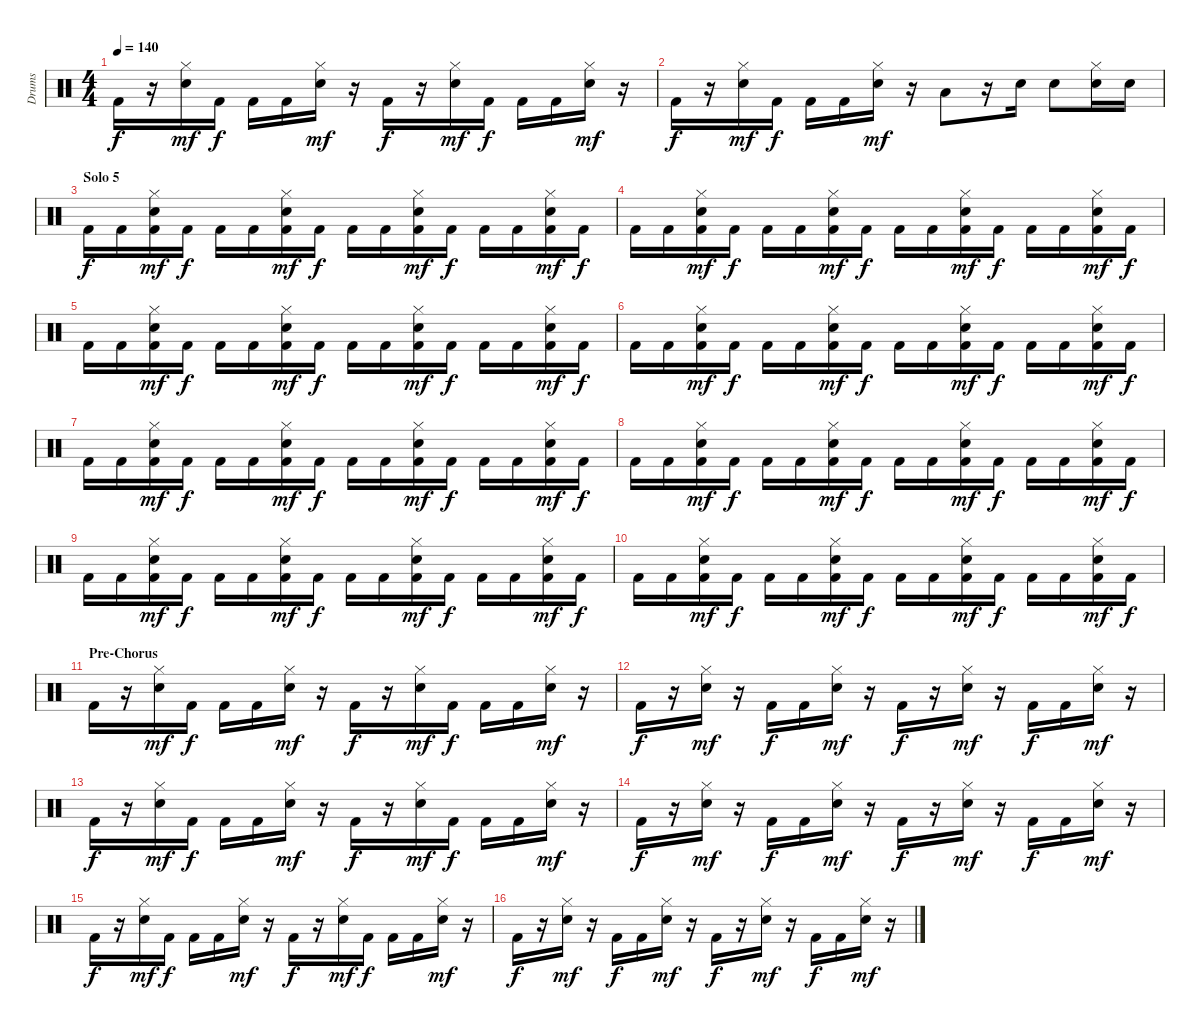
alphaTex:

\track ("Drums" "Drums") {instrument percussion}
\staff {score}
\articulation defaults
\ts (4 4)
\tempo 140
\clef neutral
\ks c "Kick (hit) 2".16{dy f}
r.16 ("Snare (hit) 2" "Hi-Hat (closed)").16{dy mf} "Kick (hit) 2".16{dy f} "Kick (hit) 2".16 "Kick (hit) 2".16 ("Snare (hit) 2" "Hi-Hat (closed)").16{dy mf} r.16 "Kick (hit) 2".16{dy f} r.16 ("Snare (hit) 2" "Hi-Hat (closed)").16{dy mf} "Kick (hit) 2".16{dy f} "Kick (hit) 2".16 "Kick (hit) 2".16 ("Snare (hit) 2" "Hi-Hat (closed)").16{dy mf} r.16 |
"Kick (hit) 2".16{dy f} r.16 ("Snare (hit) 2" "Hi-Hat (closed)").16{dy mf} "Kick (hit) 2".16{dy f} "Kick (hit) 2".16 "Kick (hit) 2".16 ("Snare (hit) 2" "Hi-Hat (closed)").16{dy mf} r.16 "Low Floor Tom (hit)".8 r.16 "Snare (hit) 2".16 "Snare (hit) 2".8 ("Snare (hit) 2" "Hi-Hat (closed)").16 "Snare (hit) 2".16 |
\section ("" "Solo 5")
"Kick (hit) 2".16{dy f} "Kick (hit) 2".16 ("Kick (hit) 2" "Snare (hit) 2" "Hi-Hat (closed)").16{dy mf} "Kick (hit) 2".16{dy f} "Kick (hit) 2".16 "Kick (hit) 2".16 ("Kick (hit) 2" "Snare (hit) 2" "Hi-Hat (closed)").16{dy mf} "Kick (hit) 2".16{dy f} "Kick (hit) 2".16 "Kick (hit) 2".16 ("Kick (hit) 2" "Snare (hit) 2" "Hi-Hat (closed)").16{dy mf} "Kick (hit) 2".16{dy f} "Kick (hit) 2".16 "Kick (hit) 2".16 ("Kick (hit) 2" "Snare (hit) 2" "Hi-Hat (closed)").16{dy mf} "Kick (hit) 2".16{dy f} |
"Kick (hit) 2".16 "Kick (hit) 2".16 ("Kick (hit) 2" "Snare (hit) 2" "Hi-Hat (closed)").16{dy mf} "Kick (hit) 2".16{dy f} "Kick (hit) 2".16 "Kick (hit) 2".16 ("Kick (hit) 2" "Snare (hit) 2" "Hi-Hat (closed)").16{dy mf} "Kick (hit) 2".16{dy f} "Kick (hit) 2".16 "Kick (hit) 2".16 ("Kick (hit) 2" "Snare (hit) 2" "Hi-Hat (closed)").16{dy mf} "Kick (hit) 2".16{dy f} "Kick (hit) 2".16 "Kick (hit) 2".16 ("Kick (hit) 2" "Snare (hit) 2" "Hi-Hat (closed)").16{dy mf} "Kick (hit) 2".16{dy f} |
"Kick (hit) 2".16 "Kick (hit) 2".16 ("Kick (hit) 2" "Snare (hit) 2" "Hi-Hat (closed)").16{dy mf} "Kick (hit) 2".16{dy f} "Kick (hit) 2".16 "Kick (hit) 2".16 ("Kick (hit) 2" "Snare (hit) 2" "Hi-Hat (closed)").16{dy mf} "Kick (hit) 2".16{dy f} "Kick (hit) 2".16 "Kick (hit) 2".16 ("Kick (hit) 2" "Snare (hit) 2" "Hi-Hat (closed)").16{dy mf} "Kick (hit) 2".16{dy f} "Kick (hit) 2".16 "Kick (hit) 2".16 ("Kick (hit) 2" "Snare (hit) 2" "Hi-Hat (closed)").16{dy mf} "Kick (hit) 2".16{dy f} |
"Kick (hit) 2".16 "Kick (hit) 2".16 ("Kick (hit) 2" "Snare (hit) 2" "Hi-Hat (closed)").16{dy mf} "Kick (hit) 2".16{dy f} "Kick (hit) 2".16 "Kick (hit) 2".16 ("Kick (hit) 2" "Snare (hit) 2" "Hi-Hat (closed)").16{dy mf} "Kick (hit) 2".16{dy f} "Kick (hit) 2".16 "Kick (hit) 2".16 ("Kick (hit) 2" "Snare (hit) 2" "Hi-Hat (closed)").16{dy mf} "Kick (hit) 2".16{dy f} "Kick (hit) 2".16 "Kick (hit) 2".16 ("Kick (hit) 2" "Snare (hit) 2" "Hi-Hat (closed)").16{dy mf} "Kick (hit) 2".16{dy f} |
"Kick (hit) 2".16 "Kick (hit) 2".16 ("Kick (hit) 2" "Snare (hit) 2" "Hi-Hat (closed)").16{dy mf} "Kick (hit) 2".16{dy f} "Kick (hit) 2".16 "Kick (hit) 2".16 ("Kick (hit) 2" "Snare (hit) 2" "Hi-Hat (closed)").16{dy mf} "Kick (hit) 2".16{dy f} "Kick (hit) 2".16 "Kick (hit) 2".16 ("Kick (hit) 2" "Snare (hit) 2" "Hi-Hat (closed)").16{dy mf} "Kick (hit) 2".16{dy f} "Kick (hit) 2".16 "Kick (hit) 2".16 ("Kick (hit) 2" "Snare (hit) 2" "Hi-Hat (closed)").16{dy mf} "Kick (hit) 2".16{dy f} |
"Kick (hit) 2".16 "Kick (hit) 2".16 ("Kick (hit) 2" "Snare (hit) 2" "Hi-Hat (closed)").16{dy mf} "Kick (hit) 2".16{dy f} "Kick (hit) 2".16 "Kick (hit) 2".16 ("Kick (hit) 2" "Snare (hit) 2" "Hi-Hat (closed)").16{dy mf} "Kick (hit) 2".16{dy f} "Kick (hit) 2".16 "Kick (hit) 2".16 ("Kick (hit) 2" "Snare (hit) 2" "Hi-Hat (closed)").16{dy mf} "Kick (hit) 2".16{dy f} "Kick (hit) 2".16 "Kick (hit) 2".16 ("Kick (hit) 2" "Snare (hit) 2" "Hi-Hat (closed)").16{dy mf} "Kick (hit) 2".16{dy f} |
"Kick (hit) 2".16 "Kick (hit) 2".16 ("Kick (hit) 2" "Snare (hit) 2" "Hi-Hat (closed)").16{dy mf} "Kick (hit) 2".16{dy f} "Kick (hit) 2".16 "Kick (hit) 2".16 ("Kick (hit) 2" "Snare (hit) 2" "Hi-Hat (closed)").16{dy mf} "Kick (hit) 2".16{dy f} "Kick (hit) 2".16 "Kick (hit) 2".16 ("Kick (hit) 2" "Snare (hit) 2" "Hi-Hat (closed)").16{dy mf} "Kick (hit) 2".16{dy f} "Kick (hit) 2".16 "Kick (hit) 2".16 ("Kick (hit) 2" "Snare (hit) 2" "Hi-Hat (closed)").16{dy mf} "Kick (hit) 2".16{dy f} |
"Kick (hit) 2".16 "Kick (hit) 2".16 ("Kick (hit) 2" "Snare (hit) 2" "Hi-Hat (closed)").16{dy mf} "Kick (hit) 2".16{dy f} "Kick (hit) 2".16 "Kick (hit) 2".16 ("Kick (hit) 2" "Snare (hit) 2" "Hi-Hat (closed)").16{dy mf} "Kick (hit) 2".16{dy f} "Kick (hit) 2".16 "Kick (hit) 2".16 ("Kick (hit) 2" "Snare (hit) 2" "Hi-Hat (closed)").16{dy mf} "Kick (hit) 2".16{dy f} "Kick (hit) 2".16 "Kick (hit) 2".16 ("Kick (hit) 2" "Snare (hit) 2" "Hi-Hat (closed)").16{dy mf} "Kick (hit) 2".16{dy f} |
\section ("" "Pre-Chorus")
"Kick (hit) 2".16 r.16 ("Snare (hit) 2" "Hi-Hat (closed)").16{dy mf} "Kick (hit) 2".16{dy f} "Kick (hit) 2".16 "Kick (hit) 2".16 ("Snare (hit) 2" "Hi-Hat (closed)").16{dy mf} r.16 "Kick (hit) 2".16{dy f} r.16 ("Snare (hit) 2" "Hi-Hat (closed)").16{dy mf} "Kick (hit) 2".16{dy f} "Kick (hit) 2".16 "Kick (hit) 2".16 ("Snare (hit) 2" "Hi-Hat (closed)").16{dy mf} r.16 |
"Kick (hit) 2".16{dy f} r.16 ("Snare (hit) 2" "Hi-Hat (closed)").16{dy mf} r.16 "Kick (hit) 2".16{dy f} "Kick (hit) 2".16 ("Snare (hit) 2" "Hi-Hat (closed)").16{dy mf} r.16 "Kick (hit) 2".16{dy f} r.16 ("Snare (hit) 2" "Hi-Hat (closed)").16{dy mf} r.16 "Kick (hit) 2".16{dy f} "Kick (hit) 2".16 ("Snare (hit) 2" "Hi-Hat (closed)").16{dy mf} r.16 |
"Kick (hit) 2".16{dy f} r.16 ("Snare (hit) 2" "Hi-Hat (closed)").16{dy mf} "Kick (hit) 2".16{dy f} "Kick (hit) 2".16 "Kick (hit) 2".16 ("Snare (hit) 2" "Hi-Hat (closed)").16{dy mf} r.16 "Kick (hit) 2".16{dy f} r.16 ("Snare (hit) 2" "Hi-Hat (closed)").16{dy mf} "Kick (hit) 2".16{dy f} "Kick (hit) 2".16 "Kick (hit) 2".16 ("Snare (hit) 2" "Hi-Hat (closed)").16{dy mf} r.16 |
"Kick (hit) 2".16{dy f} r.16 ("Snare (hit) 2" "Hi-Hat (closed)").16{dy mf} r.16 "Kick (hit) 2".16{dy f} "Kick (hit) 2".16 ("Snare (hit) 2" "Hi-Hat (closed)").16{dy mf} r.16 "Kick (hit) 2".16{dy f} r.16 ("Snare (hit) 2" "Hi-Hat (closed)").16{dy mf} r.16 "Kick (hit) 2".16{dy f} "Kick (hit) 2".16 ("Snare (hit) 2" "Hi-Hat (closed)").16{dy mf} r.16 |
"Kick (hit) 2".16{dy f} r.16 ("Snare (hit) 2" "Hi-Hat (closed)").16{dy mf} "Kick (hit) 2".16{dy f} "Kick (hit) 2".16 "Kick (hit) 2".16 ("Snare (hit) 2" "Hi-Hat (closed)").16{dy mf} r.16 "Kick (hit) 2".16{dy f} r.16 ("Snare (hit) 2" "Hi-Hat (closed)").16{dy mf} "Kick (hit) 2".16{dy f} "Kick (hit) 2".16 "Kick (hit) 2".16 ("Snare (hit) 2" "Hi-Hat (closed)").16{dy mf} r.16 |
"Kick (hit) 2".16{dy f} r.16 ("Snare (hit) 2" "Hi-Hat (closed)").16{dy mf} r.16 "Kick (hit) 2".16{dy f} "Kick (hit) 2".16 ("Snare (hit) 2" "Hi-Hat (closed)").16{dy mf} r.16 "Kick (hit) 2".16{dy f} r.16 ("Snare (hit) 2" "Hi-Hat (closed)").16{dy mf} r.16 "Kick (hit) 2".16{dy f} "Kick (hit) 2".16 ("Snare (hit) 2" "Hi-Hat (closed)").16{dy mf} r.16
